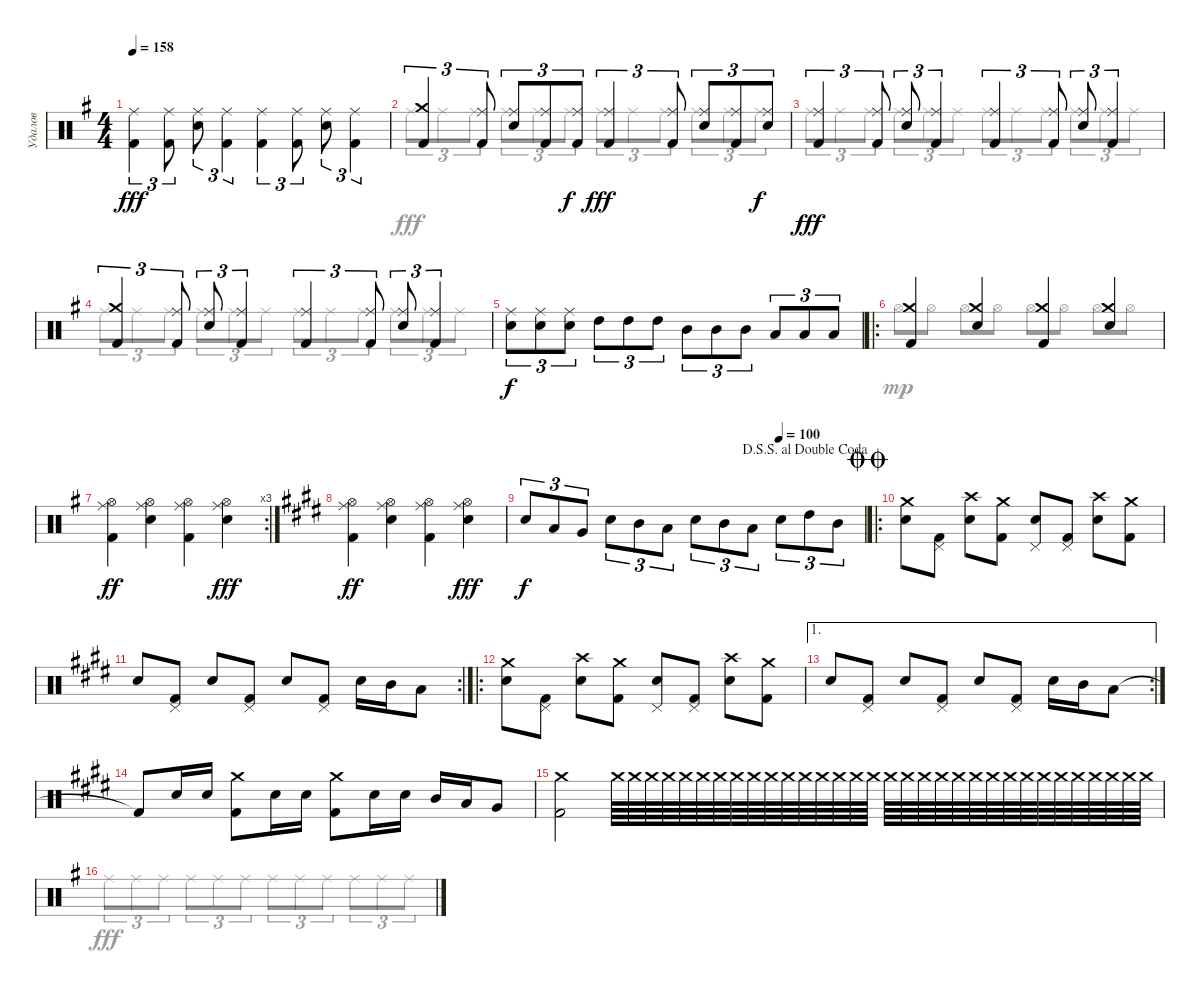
\track ("Удалов" "Удалов") {instrument percussion}
\staff {score}
\articulation defaults
\voice
\ts (4 4)
\tempo 158
\clef neutral
\ks g
("Kick (hit) 2" "Ride (middle)").4{tu (3 2) dy fff} ("Kick (hit) 2" "Ride (middle)").8{tu (3 2)} ("Electric Snare (hit)" "Ride (middle)").8{tu (3 2)} ("Kick (hit) 2" "Ride (middle)").4{tu (3 2)} ("Kick (hit) 2" "Ride (middle)").4{tu (3 2)} ("Kick (hit) 2" "Ride (middle)").8{tu (3 2)} ("Electric Snare (hit)" "Ride (middle)").8{tu (3 2)} ("Kick (hit) 2" "Ride (middle)").4{tu (3 2)} |
("Kick (hit) 2" "Crash medium (hit)").4{tu (3 2)} ("Kick (hit) 2" "Ride (middle)").8{tu (3 2)} ("Electric Snare (hit)" "Ride (middle)").8{tu (3 2)} ("Kick (hit) 2" "Ride (middle)").8{tu (3 2)} ("Kick (hit) 2" "Ride (middle)").8{tu (3 2) dy f} ("Kick (hit) 2" "Ride (middle)").4{tu (3 2) dy fff} ("Kick (hit) 2" "Ride (middle)").8{tu (3 2)} ("Electric Snare (hit)" "Ride (middle)").8{tu (3 2)} ("Kick (hit) 2" "Ride (middle)").8{tu (3 2)} ("Electric Snare (hit)" "Ride (middle)").8{tu (3 2) dy f} |
("Kick (hit) 2" "Ride (middle)").4{tu (3 2) dy fff} ("Kick (hit) 2" "Ride (middle)").8{tu (3 2)} ("Electric Snare (hit)" "Ride (middle)").8{tu (3 2)} ("Kick (hit) 2" "Ride (middle)").4{tu (3 2)} ("Kick (hit) 2" "Ride (middle)").4{tu (3 2)} ("Kick (hit) 2" "Ride (middle)").8{tu (3 2)} ("Electric Snare (hit)" "Ride (middle)").8{tu (3 2)} ("Kick (hit) 2" "Ride (middle)").4{tu (3 2)} |
("Kick (hit) 2" "Crash medium (hit)").4{tu (3 2)} ("Kick (hit) 2" "Ride (middle)").8{tu (3 2)} ("Electric Snare (hit)" "Ride (middle)").8{tu (3 2)} ("Kick (hit) 2" "Ride (middle)").4{tu (3 2)} ("Kick (hit) 2" "Ride (middle)").4{tu (3 2)} ("Kick (hit) 2" "Ride (middle)").8{tu (3 2)} ("Electric Snare (hit)" "Ride (middle)").8{tu (3 2)} ("Kick (hit) 2" "Ride (middle)").4{tu (3 2)} |
("Electric Snare (hit)" "Ride (middle)").8{tu (3 2) dy f} ("Electric Snare (hit)" "Ride (middle)").8{tu (3 2)} ("Electric Snare (hit)" "Ride (middle)").8{tu (3 2)} "High Tom (hit)".8{tu (3 2)} "High Tom (hit)".8{tu (3 2)} "High Tom (hit)".8{tu (3 2)} "Mid Tom (hit)".8{tu (3 2)} "Mid Tom (hit)".8{tu (3 2)} "Mid Tom (hit)".8{tu (3 2)} "Low Tom (hit)".8{tu (3 2)} "Low Tom (hit)".8{tu (3 2)} "Low Tom (hit)".8{tu (3 2)} |
\ro
("Kick (hit) 2" "Crash medium (hit)").4 ("Electric Snare (hit)" "Crash medium (hit)").4 ("Kick (hit) 2" "Crash medium (hit)").4 ("Electric Snare (hit)" "Crash medium (hit)").4 |
\rc 3
("Kick (hit) 2" "Hi-Hat (open)" "Ride (middle)").4{dy ff} ("Electric Snare (hit)" "Hi-Hat (open)" "Ride (middle)").4 ("Kick (hit) 2" "Hi-Hat (open)" "Ride (middle)").4 ("Electric Snare (hit)" "Hi-Hat (open)" "Ride (middle)").4{dy fff} |
\ks c#minor
("Kick (hit) 2" "Hi-Hat (open)" "Ride (middle)").4{dy ff} ("Electric Snare (hit)" "Hi-Hat (open)" "Ride (middle)").4 ("Kick (hit) 2" "Hi-Hat (open)" "Ride (middle)").4 ("Electric Snare (hit)" "Hi-Hat (open)" "Ride (middle)").4{dy fff} |
\jump dalsegnosegnoaldoublecoda
\tempo (100 0.75)
"Electric Snare (hit)".8{tu (3 2) dy f} "Low Tom (hit)".8{tu (3 2)} "Very Low Tom (hit)".8{tu (3 2)} "Electric Snare (hit)".8{tu (3 2)} "Mid Tom (hit)".8{tu (3 2)} "Low Tom (hit)".8{tu (3 2)} "Electric Snare (hit)".8{tu (3 2)} "Mid Tom (hit)".8{tu (3 2)} "Low Tom (hit)".8{tu (3 2)} "Electric Snare (hit)".8{tu (3 2)} "High Tom (hit)".8{tu (3 2)} "Mid Tom (hit)".8{tu (3 2)} |
\ro
\jump doublecoda
("Electric Snare (hit)" "Crash medium (hit)").8 ("Kick (hit) 2" "Pedal Hi-Hat (hit)").8 ("Electric Snare (hit)" "Crash high (hit)").8 ("Kick (hit) 2" "Crash medium (hit)").8 ("Electric Snare (hit)" "Pedal Hi-Hat (hit)").8 ("Kick (hit) 2" "Pedal Hi-Hat (hit)").8 ("Electric Snare (hit)" "Crash high (hit)").8 ("Kick (hit) 2" "Crash medium (hit)").8 |
\rc 2 "Electric Snare (hit)".8
("Kick (hit) 2" "Pedal Hi-Hat (hit)").8 "Electric Snare (hit)".8 ("Kick (hit) 2" "Pedal Hi-Hat (hit)").8 "Electric Snare (hit)".8 ("Kick (hit) 2" "Pedal Hi-Hat (hit)").8 "Electric Snare (hit)".16 "Mid Tom (hit)".16 "Low Tom (hit)".8 |
\ro
("Electric Snare (hit)" "Crash medium (hit)").8 ("Kick (hit) 2" "Pedal Hi-Hat (hit)").8 ("Electric Snare (hit)" "Crash high (hit)").8 ("Kick (hit) 2" "Crash medium (hit)").8 ("Electric Snare (hit)" "Pedal Hi-Hat (hit)").8 ("Kick (hit) 2" "Pedal Hi-Hat (hit)").8 ("Electric Snare (hit)" "Crash high (hit)").8 ("Kick (hit) 2" "Crash medium (hit)").8 |
\ae 1
\rc 2 "Electric Snare (hit)".8
("Kick (hit) 2" "Pedal Hi-Hat (hit)").8 "Electric Snare (hit)".8 ("Kick (hit) 2" "Pedal Hi-Hat (hit)").8 "Electric Snare (hit)".8 ("Kick (hit) 2" "Pedal Hi-Hat (hit)").8 "Electric Snare (hit)".16 "Mid Tom (hit)".16 "Low Tom (hit)".8 |
"Kick (hit) 2"{t}.8 "Electric Snare (hit)".16 "Electric Snare (hit)".16 ("Kick (hit) 2" "Crash medium (hit)").8 "Electric Snare (hit)".16 "Electric Snare (hit)".16 ("Kick (hit) 2" "Crash medium (hit)").8 "Electric Snare (hit)".16 "Electric Snare (hit)".16 "Mid Tom (hit)".16 "Low Tom (hit)".16 "Very Low Tom (hit)".8 |
("Kick (hit) 2" "Crash medium (hit)").2 "Crash medium (hit)".64{volume 0} "Crash medium (hit)".64{volume 13} "Crash medium (hit)".64 "Crash medium (hit)".64 "Crash medium (hit)".64 "Crash medium (hit)".64 "Crash medium (hit)".64 "Crash medium (hit)".64 "Crash medium (hit)".64 "Crash medium (hit)".64 "Crash medium (hit)".64 "Crash medium (hit)".64 "Crash medium (hit)".64 "Crash medium (hit)".64 "Crash medium (hit)".64 "Crash medium (hit)".64 "Crash medium (hit)".64 "Crash medium (hit)".64 "Crash medium (hit)".64 "Crash medium (hit)".64 "Crash medium (hit)".64 "Crash medium (hit)".64 "Crash medium (hit)".64 "Crash medium (hit)".64 "Crash medium (hit)".64 "Crash medium (hit)".64 "Crash medium (hit)".64 "Crash medium (hit)".64 "Crash medium (hit)".64 "Crash medium (hit)".64 "Crash medium (hit)".64 "Crash medium (hit)".64 |
\ks g
\voice
\clef neutral
\ottava regular
\simile none
\ks g "Ride (middle)".8{tu (3 2) dy fff} "Ride (middle)".8{tu (3 2)} "Ride (middle)".8{tu (3 2)} "Ride (middle)".8{tu (3 2)} "Ride (middle)".8{tu (3 2)} "Ride (middle)".8{tu (3 2)} "Ride (middle)".8{tu (3 2)} "Ride (middle)".8{tu (3 2)} "Ride (middle)".8{tu (3 2)} "Ride (middle)".8{tu (3 2)} "Ride (middle)".8{tu (3 2)} "Ride (middle)".8{tu (3 2)}
|
"Ride (middle)".8{tu (3 2)} "Ride (middle)".8{tu (3 2)} "Ride (middle)".8{tu (3 2)} "Ride (middle)".8{tu (3 2)} "Ride (middle)".8{tu (3 2)} "Ride (middle)".8{tu (3 2)} "Ride (middle)".8{tu (3 2)} "Ride (middle)".8{tu (3 2)} "Ride (middle)".8{tu (3 2)} "Ride (middle)".8{tu (3 2)} "Ride (middle)".8{tu (3 2)} "Ride (middle)".8{tu (3 2)} |
"Ride (middle)".8{tu (3 2)} "Ride (middle)".8{tu (3 2)} "Ride (middle)".8{tu (3 2)} "Ride (middle)".8{tu (3 2)} "Ride (middle)".8{tu (3 2)} "Ride (middle)".8{tu (3 2)} "Ride (middle)".8{tu (3 2)} "Ride (middle)".8{tu (3 2)} "Ride (middle)".8{tu (3 2)} "Ride (middle)".8{tu (3 2)} "Ride (middle)".8{tu (3 2)} "Ride (middle)".8{tu (3 2)} |
"Ride (middle)".8{tu (3 2)} "Ride (middle)".8{tu (3 2)} "Ride (middle)".8{tu (3 2)} "Ride (middle)".8{tu (3 2)} "Ride (middle)".8{tu (3 2)} "Ride (middle)".8{tu (3 2)} "Ride (middle)".8{tu (3 2)} "Ride (middle)".8{tu (3 2)} "Ride (middle)".8{tu (3 2)} "Ride (middle)".8{tu (3 2)} "Ride (middle)".8{tu (3 2)} "Ride (middle)".8{tu (3 2)} |
|
"Hi-Hat (open)".8{dy mp} "Hi-Hat (open)".8 "Hi-Hat (open)".8 "Hi-Hat (open)".8 "Hi-Hat (open)".8 "Hi-Hat (open)".8 "Hi-Hat (open)".8 "Hi-Hat (open)".8 |
|
\ks c#minor
|
|
|
|
|
|
|
|
\ks g
